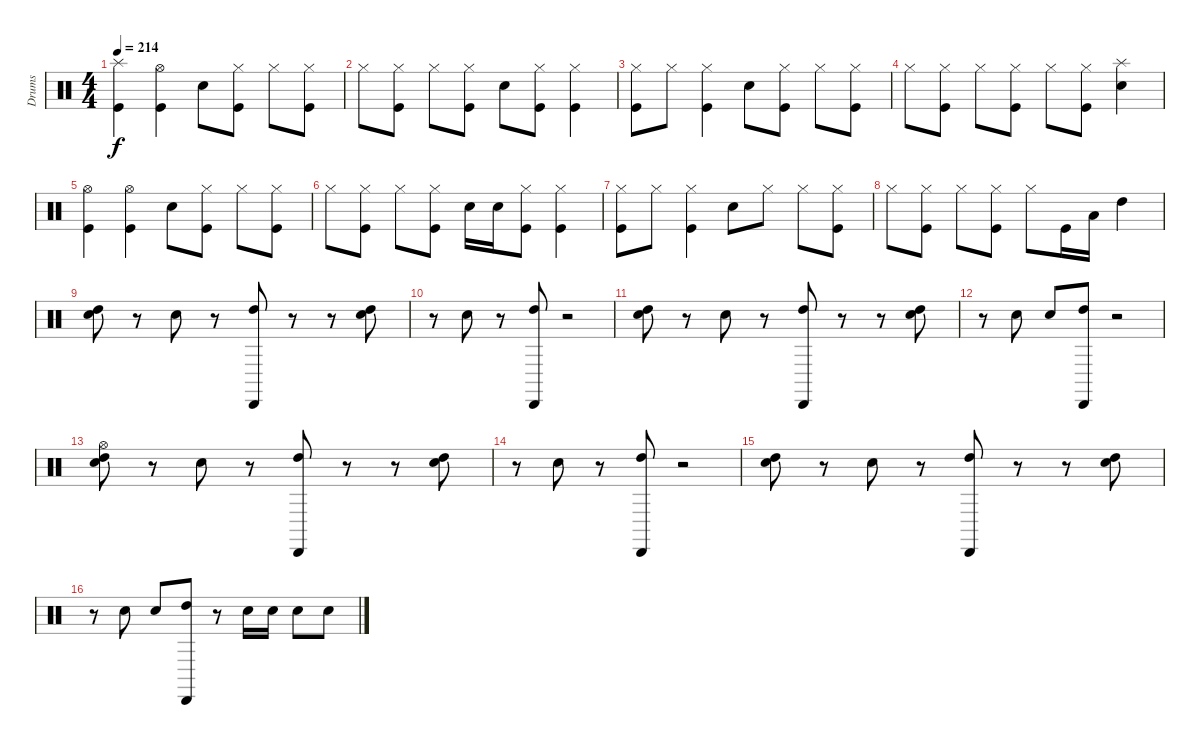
\track ("Drums" "Drums") {instrument percussion}
\staff {score}
\articulation defaults
\ts (4 4)
\tempo 214
\clef neutral
\ks c
("Splash (hit)" "Kick (hit)").4{dy f} ("Hi-Hat (open)" "Kick (hit)").4 "Snare (hit) 2".8 ("Hi-Hat (closed)" "Kick (hit)").8 "Hi-Hat (closed)".8 ("Hi-Hat (closed)" "Kick (hit)").8 |
"Hi-Hat (closed)".8 ("Hi-Hat (closed)" "Kick (hit)").8 "Hi-Hat (closed)".8 ("Hi-Hat (closed)" "Kick (hit)").8 "Snare (hit) 2".8 ("Hi-Hat (closed)" "Kick (hit)").8 ("Hi-Hat (closed)" "Kick (hit)").4 |
("Hi-Hat (closed)" "Kick (hit)").8 "Hi-Hat (closed)".8 ("Hi-Hat (closed)" "Kick (hit)").4 "Snare (hit) 2".8 ("Hi-Hat (closed)" "Kick (hit)").8 "Hi-Hat (closed)".8 ("Hi-Hat (closed)" "Kick (hit)").8 |
"Hi-Hat (closed)".8 ("Hi-Hat (closed)" "Kick (hit)").8 "Hi-Hat (closed)".8 ("Hi-Hat (closed)" "Kick (hit)").8 "Hi-Hat (closed)".8 ("Hi-Hat (closed)" "Kick (hit)").8 ("Splash (hit)" "Snare (hit) 2").4 |
("Hi-Hat (open)" "Kick (hit)").4 ("Hi-Hat (open)" "Kick (hit)").4 "Snare (hit) 2".8 ("Hi-Hat (closed)" "Kick (hit)").8 "Hi-Hat (closed)".8 ("Hi-Hat (closed)" "Kick (hit)").8 |
"Hi-Hat (closed)".8 ("Hi-Hat (closed)" "Kick (hit)").8 "Hi-Hat (closed)".8 ("Hi-Hat (closed)" "Kick (hit)").8 "Snare (hit) 2".16 "Snare (hit) 2".16 ("Hi-Hat (closed)" "Kick (hit)").8 ("Hi-Hat (closed)" "Kick (hit)").4 |
("Hi-Hat (closed)" "Kick (hit)").8 "Hi-Hat (closed)".8 ("Hi-Hat (closed)" "Kick (hit)").4 "Snare (hit) 2".8 "Hi-Hat (closed)".8 "Hi-Hat (closed)".8 ("Hi-Hat (closed)" "Kick (hit)").8 |
"Hi-Hat (closed)".8 ("Hi-Hat (closed)" "Kick (hit)").8 "Hi-Hat (closed)".8 ("Hi-Hat (closed)" "Kick (hit)").8 "Hi-Hat (closed)".8 "Kick (hit)".16 "Low Tom (hit)".16 "High Tom (hit)".4 |
("Hand Clap (hit)" "High Tom (hit)").8 r.8 "Hand Clap (hit)".8 r.8 ("Cabasa (hit)" "High Tom (hit)").8 r.8 r.8 ("Hand Clap (hit)" "High Tom (hit)").8 |
r.8 "Hand Clap (hit)".8 r.8 ("Cabasa (hit)" "High Tom (hit)").8 r.2 |
("Hand Clap (hit)" "High Tom (hit)").8 r.8 "Hand Clap (hit)".8 r.8 ("Cabasa (hit)" "High Tom (hit)").8 r.8 r.8 ("Hand Clap (hit)" "High Tom (hit)").8 |
r.8 "Hand Clap (hit)".8 "Hand Clap (hit)".8 ("Cabasa (hit)" "High Tom (hit)").8 r.2 |
("Hand Clap (hit)" "Hi-Hat (open)" "High Tom (hit)").8 r.8 "Hand Clap (hit)".8 r.8 ("Cabasa (hit)" "High Tom (hit)").8 r.8 r.8 ("Hand Clap (hit)" "High Tom (hit)").8 |
r.8 "Hand Clap (hit)".8 r.8 ("Cabasa (hit)" "High Tom (hit)").8 r.2 |
("Hand Clap (hit)" "High Tom (hit)").8 r.8 "Hand Clap (hit)".8 r.8 ("Cabasa (hit)" "High Tom (hit)").8 r.8 r.8 ("Hand Clap (hit)" "High Tom (hit)").8 |
r.8 "Hand Clap (hit)".8 "Hand Clap (hit)".8 ("Cabasa (hit)" "High Tom (hit)").8 r.8 "Snare (hit) 2".16 "Snare (hit) 2".16 "Snare (hit) 2".8 "Snare (hit) 2".8
